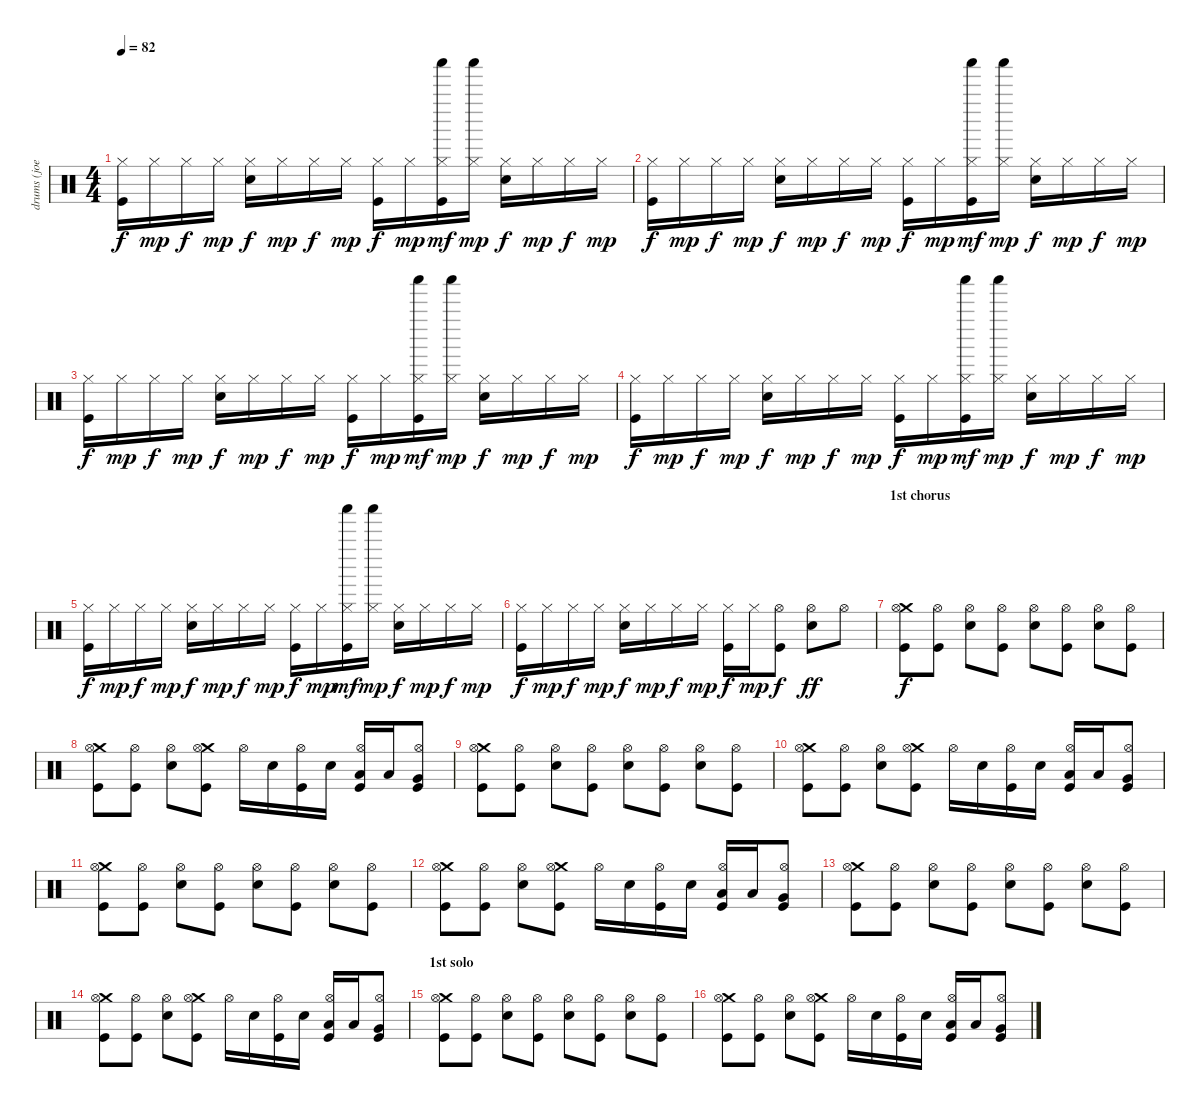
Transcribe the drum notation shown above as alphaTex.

\track ("drums (joey castillo)" "drums (joe") {instrument percussion}
\staff {score}
\articulation defaults
\ts (4 4)
\tempo 82
\clef neutral
\ks c
("Kick (hit)" "Hi-Hat (closed)").16{dy f} "Hi-Hat (closed)".16{dy mp} "Hi-Hat (closed)".16{dy f} "Hi-Hat (closed)".16{dy mp} ("Electric Snare (hit)" "Hi-Hat (closed)").16{dy f} "Hi-Hat (closed)".16{dy mp} "Hi-Hat (closed)".16{dy f} "Hi-Hat (closed)".16{dy mp} ("Kick (hit)" "Hi-Hat (closed)").16{dy f} "Hi-Hat (closed)".16{dy mp} ("Shaker (hit)" "Kick (hit)" "Hi-Hat (closed)").16{dy mf} ("Shaker (hit)" "Hi-Hat (closed)").16{dy mp} ("Electric Snare (hit)" "Hi-Hat (closed)").16{dy f} "Hi-Hat (closed)".16{dy mp} "Hi-Hat (closed)".16{dy f} "Hi-Hat (closed)".16{dy mp} |
("Kick (hit)" "Hi-Hat (closed)").16{dy f} "Hi-Hat (closed)".16{dy mp} "Hi-Hat (closed)".16{dy f} "Hi-Hat (closed)".16{dy mp} ("Electric Snare (hit)" "Hi-Hat (closed)").16{dy f} "Hi-Hat (closed)".16{dy mp} "Hi-Hat (closed)".16{dy f} "Hi-Hat (closed)".16{dy mp} ("Kick (hit)" "Hi-Hat (closed)").16{dy f} "Hi-Hat (closed)".16{dy mp} ("Shaker (hit)" "Kick (hit)" "Hi-Hat (closed)").16{dy mf} ("Shaker (hit)" "Hi-Hat (closed)").16{dy mp} ("Electric Snare (hit)" "Hi-Hat (closed)").16{dy f} "Hi-Hat (closed)".16{dy mp} "Hi-Hat (closed)".16{dy f} "Hi-Hat (closed)".16{dy mp} |
("Kick (hit)" "Hi-Hat (closed)").16{dy f} "Hi-Hat (closed)".16{dy mp} "Hi-Hat (closed)".16{dy f} "Hi-Hat (closed)".16{dy mp} ("Electric Snare (hit)" "Hi-Hat (closed)").16{dy f} "Hi-Hat (closed)".16{dy mp} "Hi-Hat (closed)".16{dy f} "Hi-Hat (closed)".16{dy mp} ("Kick (hit)" "Hi-Hat (closed)").16{dy f} "Hi-Hat (closed)".16{dy mp} ("Shaker (hit)" "Kick (hit)" "Hi-Hat (closed)").16{dy mf} ("Shaker (hit)" "Hi-Hat (closed)").16{dy mp} ("Electric Snare (hit)" "Hi-Hat (closed)").16{dy f} "Hi-Hat (closed)".16{dy mp} "Hi-Hat (closed)".16{dy f} "Hi-Hat (closed)".16{dy mp} |
("Kick (hit)" "Hi-Hat (closed)").16{dy f} "Hi-Hat (closed)".16{dy mp} "Hi-Hat (closed)".16{dy f} "Hi-Hat (closed)".16{dy mp} ("Electric Snare (hit)" "Hi-Hat (closed)").16{dy f} "Hi-Hat (closed)".16{dy mp} "Hi-Hat (closed)".16{dy f} "Hi-Hat (closed)".16{dy mp} ("Kick (hit)" "Hi-Hat (closed)").16{dy f} "Hi-Hat (closed)".16{dy mp} ("Shaker (hit)" "Kick (hit)" "Hi-Hat (closed)").16{dy mf} ("Shaker (hit)" "Hi-Hat (closed)").16{dy mp} ("Electric Snare (hit)" "Hi-Hat (closed)").16{dy f} "Hi-Hat (closed)".16{dy mp} "Hi-Hat (closed)".16{dy f} "Hi-Hat (closed)".16{dy mp} |
("Kick (hit)" "Hi-Hat (closed)").16{dy f} "Hi-Hat (closed)".16{dy mp} "Hi-Hat (closed)".16{dy f} "Hi-Hat (closed)".16{dy mp} ("Electric Snare (hit)" "Hi-Hat (closed)").16{dy f} "Hi-Hat (closed)".16{dy mp} "Hi-Hat (closed)".16{dy f} "Hi-Hat (closed)".16{dy mp} ("Kick (hit)" "Hi-Hat (closed)").16{dy f} "Hi-Hat (closed)".16{dy mp} ("Shaker (hit)" "Kick (hit)" "Hi-Hat (closed)").16{dy mf} ("Shaker (hit)" "Hi-Hat (closed)").16{dy mp} ("Electric Snare (hit)" "Hi-Hat (closed)").16{dy f} "Hi-Hat (closed)".16{dy mp} "Hi-Hat (closed)".16{dy f} "Hi-Hat (closed)".16{dy mp} |
("Kick (hit)" "Hi-Hat (closed)").16{dy f} "Hi-Hat (closed)".16{dy mp} "Hi-Hat (closed)".16{dy f} "Hi-Hat (closed)".16{dy mp} ("Electric Snare (hit)" "Hi-Hat (closed)").16{dy f} "Hi-Hat (closed)".16{dy mp} "Hi-Hat (closed)".16{dy f} "Hi-Hat (closed)".16{dy mp} ("Kick (hit)" "Hi-Hat (closed)").16{dy f} "Hi-Hat (closed)".16{dy mp} ("Kick (hit)" "Hi-Hat (open)").8{dy f} ("Electric Snare (hit)" "Hi-Hat (open)").8{dy ff} "Hi-Hat (open)".8 |
\section ("" "1st chorus")
("Crash medium (hit)" "Kick (hit)" "Hi-Hat (open)").8{dy f} ("Kick (hit)" "Hi-Hat (open)").8 ("Electric Snare (hit)" "Hi-Hat (open)").8 ("Kick (hit)" "Hi-Hat (open)").8 ("Electric Snare (hit)" "Hi-Hat (open)").8 ("Kick (hit)" "Hi-Hat (open)").8 ("Electric Snare (hit)" "Hi-Hat (open)").8 ("Kick (hit)" "Hi-Hat (open)").8 |
("Crash medium (hit)" "Kick (hit)" "Hi-Hat (open)").8 ("Kick (hit)" "Hi-Hat (open)").8 ("Electric Snare (hit)" "Hi-Hat (open)").8 ("Crash medium (hit)" "Kick (hit)" "Hi-Hat (open)").8 "Hi-Hat (open)".16 "Electric Snare (hit)".16 ("Kick (hit)" "Hi-Hat (open)").16 "Electric Snare (hit)".16 ("Low Tom (hit)" "Kick (hit)" "Hi-Hat (open)").16 "Low Tom (hit)".16 ("Very Low Tom (hit)" "Kick (hit)" "Hi-Hat (open)").8 |
("Crash medium (hit)" "Kick (hit)" "Hi-Hat (open)").8 ("Kick (hit)" "Hi-Hat (open)").8 ("Electric Snare (hit)" "Hi-Hat (open)").8 ("Kick (hit)" "Hi-Hat (open)").8 ("Electric Snare (hit)" "Hi-Hat (open)").8 ("Kick (hit)" "Hi-Hat (open)").8 ("Electric Snare (hit)" "Hi-Hat (open)").8 ("Kick (hit)" "Hi-Hat (open)").8 |
("Crash medium (hit)" "Kick (hit)" "Hi-Hat (open)").8 ("Kick (hit)" "Hi-Hat (open)").8 ("Electric Snare (hit)" "Hi-Hat (open)").8 ("Crash medium (hit)" "Kick (hit)" "Hi-Hat (open)").8 "Hi-Hat (open)".16 "Electric Snare (hit)".16 ("Kick (hit)" "Hi-Hat (open)").16 "Electric Snare (hit)".16 ("Low Tom (hit)" "Kick (hit)" "Hi-Hat (open)").16 "Low Tom (hit)".16 ("Very Low Tom (hit)" "Kick (hit)" "Hi-Hat (open)").8 |
("Crash medium (hit)" "Kick (hit)" "Hi-Hat (open)").8 ("Kick (hit)" "Hi-Hat (open)").8 ("Electric Snare (hit)" "Hi-Hat (open)").8 ("Kick (hit)" "Hi-Hat (open)").8 ("Electric Snare (hit)" "Hi-Hat (open)").8 ("Kick (hit)" "Hi-Hat (open)").8 ("Electric Snare (hit)" "Hi-Hat (open)").8 ("Kick (hit)" "Hi-Hat (open)").8 |
("Crash medium (hit)" "Kick (hit)" "Hi-Hat (open)").8 ("Kick (hit)" "Hi-Hat (open)").8 ("Electric Snare (hit)" "Hi-Hat (open)").8 ("Crash medium (hit)" "Kick (hit)" "Hi-Hat (open)").8 "Hi-Hat (open)".16 "Electric Snare (hit)".16 ("Kick (hit)" "Hi-Hat (open)").16 "Electric Snare (hit)".16 ("Low Tom (hit)" "Kick (hit)" "Hi-Hat (open)").16 "Low Tom (hit)".16 ("Very Low Tom (hit)" "Kick (hit)" "Hi-Hat (open)").8 |
("Crash medium (hit)" "Kick (hit)" "Hi-Hat (open)").8 ("Kick (hit)" "Hi-Hat (open)").8 ("Electric Snare (hit)" "Hi-Hat (open)").8 ("Kick (hit)" "Hi-Hat (open)").8 ("Electric Snare (hit)" "Hi-Hat (open)").8 ("Kick (hit)" "Hi-Hat (open)").8 ("Electric Snare (hit)" "Hi-Hat (open)").8 ("Kick (hit)" "Hi-Hat (open)").8 |
("Crash medium (hit)" "Kick (hit)" "Hi-Hat (open)").8 ("Kick (hit)" "Hi-Hat (open)").8 ("Electric Snare (hit)" "Hi-Hat (open)").8 ("Crash medium (hit)" "Kick (hit)" "Hi-Hat (open)").8 "Hi-Hat (open)".16 "Electric Snare (hit)".16 ("Kick (hit)" "Hi-Hat (open)").16 "Electric Snare (hit)".16 ("Low Tom (hit)" "Kick (hit)" "Hi-Hat (open)").16 "Low Tom (hit)".16 ("Very Low Tom (hit)" "Kick (hit)" "Hi-Hat (open)").8 |
\section ("" "1st solo")
("Crash medium (hit)" "Kick (hit)" "Hi-Hat (open)").8 ("Kick (hit)" "Hi-Hat (open)").8 ("Electric Snare (hit)" "Hi-Hat (open)").8 ("Kick (hit)" "Hi-Hat (open)").8 ("Electric Snare (hit)" "Hi-Hat (open)").8 ("Kick (hit)" "Hi-Hat (open)").8 ("Electric Snare (hit)" "Hi-Hat (open)").8 ("Kick (hit)" "Hi-Hat (open)").8 |
("Crash medium (hit)" "Kick (hit)" "Hi-Hat (open)").8 ("Kick (hit)" "Hi-Hat (open)").8 ("Electric Snare (hit)" "Hi-Hat (open)").8 ("Crash medium (hit)" "Kick (hit)" "Hi-Hat (open)").8 "Hi-Hat (open)".16 "Electric Snare (hit)".16 ("Kick (hit)" "Hi-Hat (open)").16 "Electric Snare (hit)".16 ("Low Tom (hit)" "Kick (hit)" "Hi-Hat (open)").16 "Low Tom (hit)".16 ("Very Low Tom (hit)" "Kick (hit)" "Hi-Hat (open)").8
